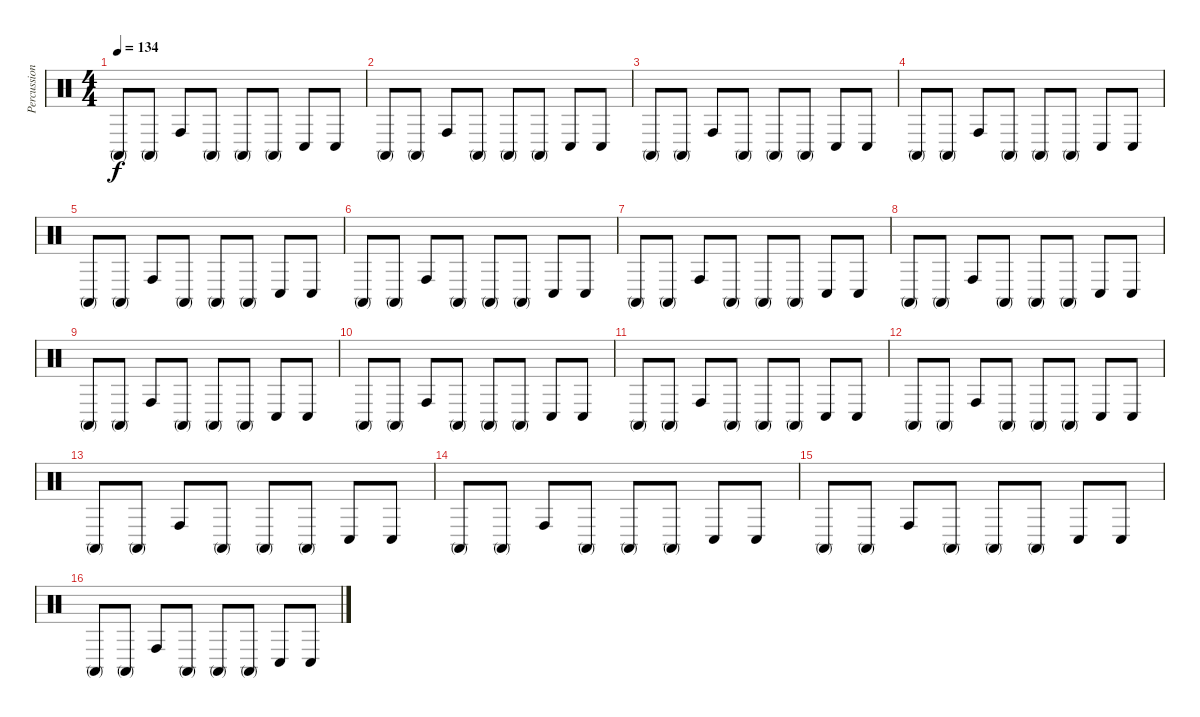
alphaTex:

\track ("Percussion" "Percussion") {instrument percussion}
\staff {score}
\articulation defaults
\ts (4 4)
\tempo 134
\clef neutral
\ks c "Conga high (mute)".8{dy f} "Conga high (mute)".8 "Conga high (hit)".8 "Conga high (mute)".8 "Conga high (mute)".8 "Conga high (mute)".8 "Conga low (hit)".8 "Conga low (hit)".8
|
"Conga high (mute)".8 "Conga high (mute)".8 "Conga high (hit)".8 "Conga high (mute)".8 "Conga high (mute)".8 "Conga high (mute)".8 "Conga low (hit)".8 "Conga low (hit)".8 |
"Conga high (mute)".8 "Conga high (mute)".8 "Conga high (hit)".8 "Conga high (mute)".8 "Conga high (mute)".8 "Conga high (mute)".8 "Conga low (hit)".8 "Conga low (hit)".8 |
"Conga high (mute)".8 "Conga high (mute)".8 "Conga high (hit)".8 "Conga high (mute)".8 "Conga high (mute)".8 "Conga high (mute)".8 "Conga low (hit)".8 "Conga low (hit)".8 |
"Conga high (mute)".8 "Conga high (mute)".8 "Conga high (hit)".8 "Conga high (mute)".8 "Conga high (mute)".8 "Conga high (mute)".8 "Conga low (hit)".8 "Conga low (hit)".8 |
"Conga high (mute)".8 "Conga high (mute)".8 "Conga high (hit)".8 "Conga high (mute)".8 "Conga high (mute)".8 "Conga high (mute)".8 "Conga low (hit)".8 "Conga low (hit)".8 |
"Conga high (mute)".8 "Conga high (mute)".8 "Conga high (hit)".8 "Conga high (mute)".8 "Conga high (mute)".8 "Conga high (mute)".8 "Conga low (hit)".8 "Conga low (hit)".8 |
"Conga high (mute)".8 "Conga high (mute)".8 "Conga high (hit)".8 "Conga high (mute)".8 "Conga high (mute)".8 "Conga high (mute)".8 "Conga low (hit)".8 "Conga low (hit)".8 |
"Conga high (mute)".8 "Conga high (mute)".8 "Conga high (hit)".8 "Conga high (mute)".8 "Conga high (mute)".8 "Conga high (mute)".8 "Conga low (hit)".8 "Conga low (hit)".8 |
"Conga high (mute)".8 "Conga high (mute)".8 "Conga high (hit)".8 "Conga high (mute)".8 "Conga high (mute)".8 "Conga high (mute)".8 "Conga low (hit)".8 "Conga low (hit)".8 |
"Conga high (mute)".8 "Conga high (mute)".8 "Conga high (hit)".8 "Conga high (mute)".8 "Conga high (mute)".8 "Conga high (mute)".8 "Conga low (hit)".8 "Conga low (hit)".8 |
"Conga high (mute)".8 "Conga high (mute)".8 "Conga high (hit)".8 "Conga high (mute)".8 "Conga high (mute)".8 "Conga high (mute)".8 "Conga low (hit)".8 "Conga low (hit)".8 |
"Conga high (mute)".8 "Conga high (mute)".8 "Conga high (hit)".8 "Conga high (mute)".8 "Conga high (mute)".8 "Conga high (mute)".8 "Conga low (hit)".8 "Conga low (hit)".8 |
"Conga high (mute)".8 "Conga high (mute)".8 "Conga high (hit)".8 "Conga high (mute)".8 "Conga high (mute)".8 "Conga high (mute)".8 "Conga low (hit)".8 "Conga low (hit)".8 |
"Conga high (mute)".8 "Conga high (mute)".8 "Conga high (hit)".8 "Conga high (mute)".8 "Conga high (mute)".8 "Conga high (mute)".8 "Conga low (hit)".8 "Conga low (hit)".8 |
"Conga high (mute)".8 "Conga high (mute)".8 "Conga high (hit)".8 "Conga high (mute)".8 "Conga high (mute)".8 "Conga high (mute)".8 "Conga low (hit)".8 "Conga low (hit)".8
